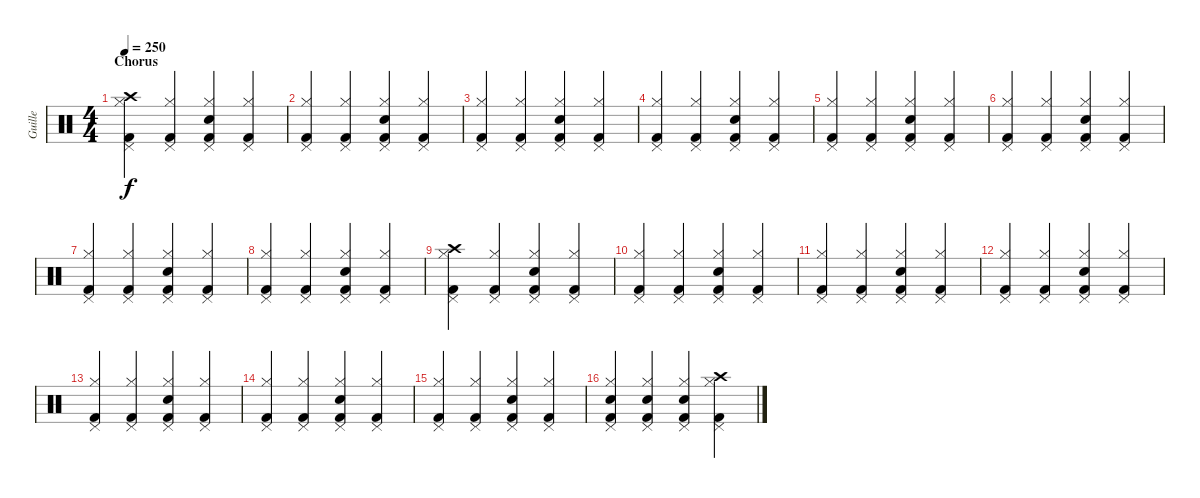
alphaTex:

\track ("Guille" "Guille") {instrument percussion}
\staff
\articulation defaults
\ts (4 4)
\section ("" "Chorus")
\tempo 250
\clef neutral
\ks c
("Kick (hit) 2" "Hi-Hat (closed)" "Pedal Hi-Hat (hit)" "Crash high (hit)").4{dy f} ("Kick (hit) 2" "Hi-Hat (closed)" "Pedal Hi-Hat (hit)").4 ("Kick (hit) 2" "Electric Snare (hit)" "Hi-Hat (closed)" "Pedal Hi-Hat (hit)").4 ("Kick (hit) 2" "Hi-Hat (closed)" "Pedal Hi-Hat (hit)").4 |
("Kick (hit) 2" "Hi-Hat (closed)" "Pedal Hi-Hat (hit)").4 ("Kick (hit) 2" "Hi-Hat (closed)" "Pedal Hi-Hat (hit)").4 ("Kick (hit) 2" "Electric Snare (hit)" "Hi-Hat (closed)" "Pedal Hi-Hat (hit)").4 ("Kick (hit) 2" "Hi-Hat (closed)" "Pedal Hi-Hat (hit)").4 |
("Kick (hit) 2" "Hi-Hat (closed)" "Pedal Hi-Hat (hit)").4 ("Kick (hit) 2" "Hi-Hat (closed)" "Pedal Hi-Hat (hit)").4 ("Kick (hit) 2" "Electric Snare (hit)" "Hi-Hat (closed)" "Pedal Hi-Hat (hit)").4 ("Kick (hit) 2" "Hi-Hat (closed)" "Pedal Hi-Hat (hit)").4 |
("Kick (hit) 2" "Hi-Hat (closed)" "Pedal Hi-Hat (hit)").4 ("Kick (hit) 2" "Hi-Hat (closed)" "Pedal Hi-Hat (hit)").4 ("Kick (hit) 2" "Electric Snare (hit)" "Hi-Hat (closed)" "Pedal Hi-Hat (hit)").4 ("Kick (hit) 2" "Hi-Hat (closed)" "Pedal Hi-Hat (hit)").4 |
("Kick (hit) 2" "Hi-Hat (closed)" "Pedal Hi-Hat (hit)").4 ("Kick (hit) 2" "Hi-Hat (closed)" "Pedal Hi-Hat (hit)").4 ("Kick (hit) 2" "Electric Snare (hit)" "Hi-Hat (closed)" "Pedal Hi-Hat (hit)").4 ("Kick (hit) 2" "Hi-Hat (closed)" "Pedal Hi-Hat (hit)").4 |
("Kick (hit) 2" "Hi-Hat (closed)" "Pedal Hi-Hat (hit)").4 ("Kick (hit) 2" "Hi-Hat (closed)" "Pedal Hi-Hat (hit)").4 ("Kick (hit) 2" "Electric Snare (hit)" "Hi-Hat (closed)" "Pedal Hi-Hat (hit)").4 ("Kick (hit) 2" "Hi-Hat (closed)" "Pedal Hi-Hat (hit)").4 |
("Kick (hit) 2" "Hi-Hat (closed)" "Pedal Hi-Hat (hit)").4 ("Kick (hit) 2" "Hi-Hat (closed)" "Pedal Hi-Hat (hit)").4 ("Kick (hit) 2" "Electric Snare (hit)" "Hi-Hat (closed)" "Pedal Hi-Hat (hit)").4 ("Kick (hit) 2" "Hi-Hat (closed)" "Pedal Hi-Hat (hit)").4 |
("Kick (hit) 2" "Hi-Hat (closed)" "Pedal Hi-Hat (hit)").4 ("Kick (hit) 2" "Hi-Hat (closed)" "Pedal Hi-Hat (hit)").4 ("Kick (hit) 2" "Electric Snare (hit)" "Hi-Hat (closed)" "Pedal Hi-Hat (hit)").4 ("Kick (hit) 2" "Hi-Hat (closed)" "Pedal Hi-Hat (hit)").4 |
("Kick (hit) 2" "Hi-Hat (closed)" "Pedal Hi-Hat (hit)" "Crash high (hit)").4 ("Kick (hit) 2" "Hi-Hat (closed)" "Pedal Hi-Hat (hit)").4 ("Kick (hit) 2" "Electric Snare (hit)" "Hi-Hat (closed)" "Pedal Hi-Hat (hit)").4 ("Kick (hit) 2" "Hi-Hat (closed)" "Pedal Hi-Hat (hit)").4 |
("Kick (hit) 2" "Hi-Hat (closed)" "Pedal Hi-Hat (hit)").4 ("Kick (hit) 2" "Hi-Hat (closed)" "Pedal Hi-Hat (hit)").4 ("Kick (hit) 2" "Electric Snare (hit)" "Hi-Hat (closed)" "Pedal Hi-Hat (hit)").4 ("Kick (hit) 2" "Hi-Hat (closed)" "Pedal Hi-Hat (hit)").4 |
("Kick (hit) 2" "Hi-Hat (closed)" "Pedal Hi-Hat (hit)").4 ("Kick (hit) 2" "Hi-Hat (closed)" "Pedal Hi-Hat (hit)").4 ("Kick (hit) 2" "Electric Snare (hit)" "Hi-Hat (closed)" "Pedal Hi-Hat (hit)").4 ("Kick (hit) 2" "Hi-Hat (closed)" "Pedal Hi-Hat (hit)").4 |
("Kick (hit) 2" "Hi-Hat (closed)" "Pedal Hi-Hat (hit)").4 ("Kick (hit) 2" "Hi-Hat (closed)" "Pedal Hi-Hat (hit)").4 ("Kick (hit) 2" "Electric Snare (hit)" "Hi-Hat (closed)" "Pedal Hi-Hat (hit)").4 ("Kick (hit) 2" "Hi-Hat (closed)" "Pedal Hi-Hat (hit)").4 |
("Kick (hit) 2" "Hi-Hat (closed)" "Pedal Hi-Hat (hit)").4 ("Kick (hit) 2" "Hi-Hat (closed)" "Pedal Hi-Hat (hit)").4 ("Kick (hit) 2" "Electric Snare (hit)" "Hi-Hat (closed)" "Pedal Hi-Hat (hit)").4 ("Kick (hit) 2" "Hi-Hat (closed)" "Pedal Hi-Hat (hit)").4 |
("Kick (hit) 2" "Hi-Hat (closed)" "Pedal Hi-Hat (hit)").4 ("Kick (hit) 2" "Hi-Hat (closed)" "Pedal Hi-Hat (hit)").4 ("Kick (hit) 2" "Electric Snare (hit)" "Hi-Hat (closed)" "Pedal Hi-Hat (hit)").4 ("Kick (hit) 2" "Hi-Hat (closed)" "Pedal Hi-Hat (hit)").4 |
("Kick (hit) 2" "Hi-Hat (closed)" "Pedal Hi-Hat (hit)").4 ("Kick (hit) 2" "Hi-Hat (closed)" "Pedal Hi-Hat (hit)").4 ("Kick (hit) 2" "Electric Snare (hit)" "Hi-Hat (closed)" "Pedal Hi-Hat (hit)").4 ("Kick (hit) 2" "Hi-Hat (closed)" "Pedal Hi-Hat (hit)").4 |
("Kick (hit) 2" "Electric Snare (hit)" "Hi-Hat (closed)" "Pedal Hi-Hat (hit)").4 ("Kick (hit) 2" "Electric Snare (hit)" "Hi-Hat (closed)" "Pedal Hi-Hat (hit)").4 ("Kick (hit) 2" "Electric Snare (hit)" "Hi-Hat (closed)" "Pedal Hi-Hat (hit)").4 ("Kick (hit) 2" "Hi-Hat (closed)" "Pedal Hi-Hat (hit)" "Crash high (hit)").4
